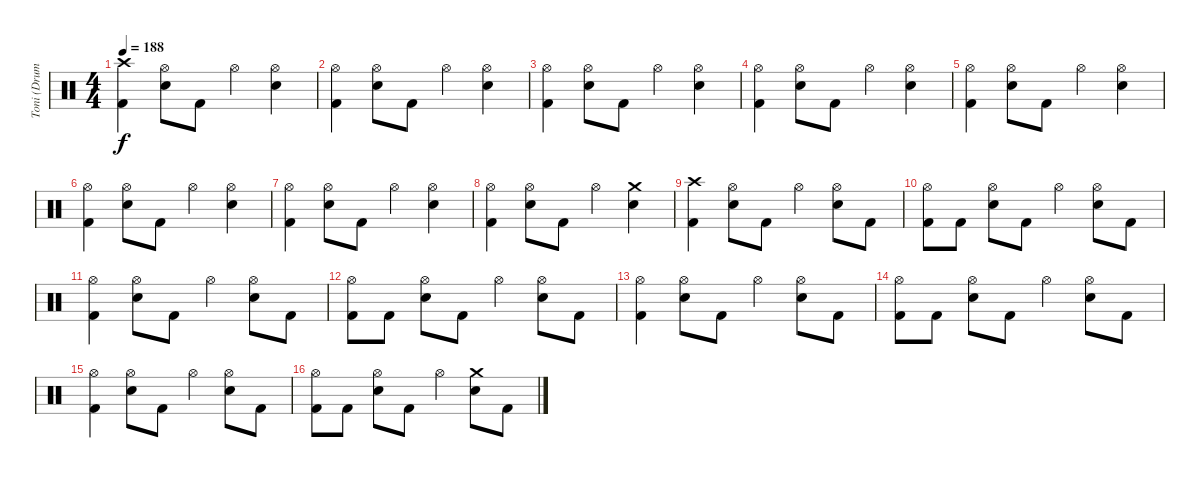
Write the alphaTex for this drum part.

\track ("Toni (Drums)" "Toni (Drum") {instrument percussion}
\staff {score}
\articulation defaults
\ts (4 4)
\tempo 188
\clef neutral
\ks c
("Crash high (hit)" "Kick (hit) 2").4{dy f} ("Hi-Hat (open)" "Electric Snare (hit)").8 "Kick (hit) 2".8 "Hi-Hat (open)".4 ("Hi-Hat (open)" "Electric Snare (hit)").4 |
("Hi-Hat (open)" "Kick (hit) 2").4 ("Hi-Hat (open)" "Electric Snare (hit)").8 "Kick (hit) 2".8 "Hi-Hat (open)".4 ("Hi-Hat (open)" "Electric Snare (hit)").4 |
("Hi-Hat (open)" "Kick (hit) 2").4 ("Hi-Hat (open)" "Electric Snare (hit)").8 "Kick (hit) 2".8 "Hi-Hat (open)".4 ("Hi-Hat (open)" "Electric Snare (hit)").4 |
("Hi-Hat (open)" "Kick (hit) 2").4 ("Hi-Hat (open)" "Electric Snare (hit)").8 "Kick (hit) 2".8 "Hi-Hat (open)".4 ("Hi-Hat (open)" "Electric Snare (hit)").4 |
("Hi-Hat (open)" "Kick (hit) 2").4 ("Hi-Hat (open)" "Electric Snare (hit)").8 "Kick (hit) 2".8 "Hi-Hat (open)".4 ("Hi-Hat (open)" "Electric Snare (hit)").4 |
("Hi-Hat (open)" "Kick (hit) 2").4 ("Hi-Hat (open)" "Electric Snare (hit)").8 "Kick (hit) 2".8 "Hi-Hat (open)".4 ("Hi-Hat (open)" "Electric Snare (hit)").4 |
("Hi-Hat (open)" "Kick (hit) 2").4 ("Hi-Hat (open)" "Electric Snare (hit)").8 "Kick (hit) 2".8 "Hi-Hat (open)".4 ("Hi-Hat (open)" "Electric Snare (hit)").4 |
("Hi-Hat (open)" "Kick (hit) 2").4 ("Hi-Hat (open)" "Electric Snare (hit)").8 "Kick (hit) 2".8 "Hi-Hat (open)".4 ("Crash medium (hit)" "Electric Snare (hit)").4 |
("Crash high (hit)" "Kick (hit) 2").4 ("Hi-Hat (open)" "Electric Snare (hit)").8 "Kick (hit) 2".8 "Hi-Hat (open)".4 ("Hi-Hat (open)" "Electric Snare (hit)").8 "Kick (hit) 2".8 |
("Hi-Hat (open)" "Kick (hit) 2").8 "Kick (hit) 2".8 ("Hi-Hat (open)" "Electric Snare (hit)").8 "Kick (hit) 2".8 "Hi-Hat (open)".4 ("Hi-Hat (open)" "Electric Snare (hit)").8 "Kick (hit) 2".8 |
("Hi-Hat (open)" "Kick (hit) 2").4 ("Hi-Hat (open)" "Electric Snare (hit)").8 "Kick (hit) 2".8 "Hi-Hat (open)".4 ("Hi-Hat (open)" "Electric Snare (hit)").8 "Kick (hit) 2".8 |
("Hi-Hat (open)" "Kick (hit) 2").8 "Kick (hit) 2".8 ("Hi-Hat (open)" "Electric Snare (hit)").8 "Kick (hit) 2".8 "Hi-Hat (open)".4 ("Hi-Hat (open)" "Electric Snare (hit)").8 "Kick (hit) 2".8 |
("Hi-Hat (open)" "Kick (hit) 2").4 ("Hi-Hat (open)" "Electric Snare (hit)").8 "Kick (hit) 2".8 "Hi-Hat (open)".4 ("Hi-Hat (open)" "Electric Snare (hit)").8 "Kick (hit) 2".8 |
("Hi-Hat (open)" "Kick (hit) 2").8 "Kick (hit) 2".8 ("Hi-Hat (open)" "Electric Snare (hit)").8 "Kick (hit) 2".8 "Hi-Hat (open)".4 ("Hi-Hat (open)" "Electric Snare (hit)").8 "Kick (hit) 2".8 |
("Hi-Hat (open)" "Kick (hit) 2").4 ("Hi-Hat (open)" "Electric Snare (hit)").8 "Kick (hit) 2".8 "Hi-Hat (open)".4 ("Hi-Hat (open)" "Electric Snare (hit)").8 "Kick (hit) 2".8 |
("Hi-Hat (open)" "Kick (hit) 2").8 "Kick (hit) 2".8 ("Hi-Hat (open)" "Electric Snare (hit)").8 "Kick (hit) 2".8 "Hi-Hat (open)".4 ("Crash medium (hit)" "Electric Snare (hit)").8 "Kick (hit) 2".8
